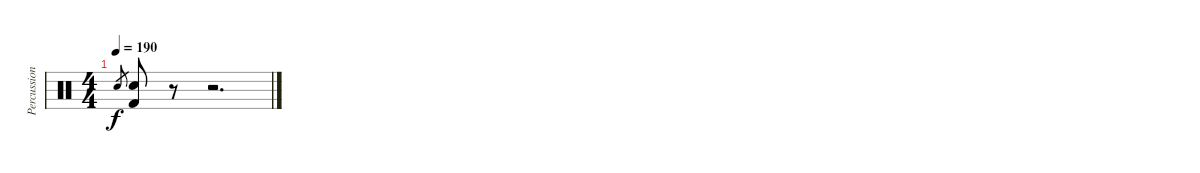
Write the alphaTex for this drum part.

\track ("Percussion" "Percussion") {instrument percussion}
\staff {score}
\articulation defaults
\ts (4 4)
\tempo 190
\clef neutral
\ks c "Electric Snare (hit)".8{gr dy f}
("Electric Snare (hit)" "Kick (hit) 2").8 r.8 r.2{d}
